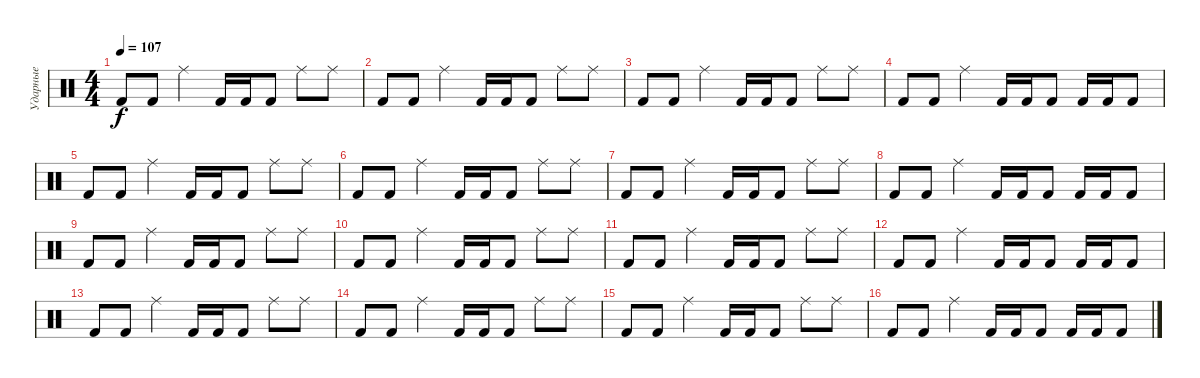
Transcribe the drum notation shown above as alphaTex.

\track ("Ударные" "Ударные") {instrument percussion}
\staff {score}
\articulation defaults
\ts (4 4)
\tempo 107
\clef neutral
\ks c "Kick (hit) 2".8{dy f} "Kick (hit) 2".8 "Ride (middle)".4 "Kick (hit) 2".16 "Kick (hit) 2".16 "Kick (hit) 2".8 "Ride (middle)".8 "Ride (middle)".8
|
"Kick (hit) 2".8 "Kick (hit) 2".8 "Ride (middle)".4 "Kick (hit) 2".16 "Kick (hit) 2".16 "Kick (hit) 2".8 "Ride (middle)".8 "Ride (middle)".8 |
"Kick (hit) 2".8 "Kick (hit) 2".8 "Ride (middle)".4 "Kick (hit) 2".16 "Kick (hit) 2".16 "Kick (hit) 2".8 "Ride (middle)".8 "Ride (middle)".8 |
"Kick (hit) 2".8 "Kick (hit) 2".8 "Ride (middle)".4 "Kick (hit) 2".16 "Kick (hit) 2".16 "Kick (hit) 2".8 "Kick (hit) 2".16 "Kick (hit) 2".16 "Kick (hit) 2".8 |
"Kick (hit) 2".8 "Kick (hit) 2".8 "Ride (middle)".4 "Kick (hit) 2".16 "Kick (hit) 2".16 "Kick (hit) 2".8 "Ride (middle)".8 "Ride (middle)".8 |
"Kick (hit) 2".8 "Kick (hit) 2".8 "Ride (middle)".4 "Kick (hit) 2".16 "Kick (hit) 2".16 "Kick (hit) 2".8 "Ride (middle)".8 "Ride (middle)".8 |
"Kick (hit) 2".8 "Kick (hit) 2".8 "Ride (middle)".4 "Kick (hit) 2".16 "Kick (hit) 2".16 "Kick (hit) 2".8 "Ride (middle)".8 "Ride (middle)".8 |
"Kick (hit) 2".8 "Kick (hit) 2".8 "Ride (middle)".4 "Kick (hit) 2".16 "Kick (hit) 2".16 "Kick (hit) 2".8 "Kick (hit) 2".16 "Kick (hit) 2".16 "Kick (hit) 2".8 |
"Kick (hit) 2".8 "Kick (hit) 2".8 "Ride (middle)".4 "Kick (hit) 2".16 "Kick (hit) 2".16 "Kick (hit) 2".8 "Ride (middle)".8 "Ride (middle)".8 |
"Kick (hit) 2".8 "Kick (hit) 2".8 "Ride (middle)".4 "Kick (hit) 2".16 "Kick (hit) 2".16 "Kick (hit) 2".8 "Ride (middle)".8 "Ride (middle)".8 |
"Kick (hit) 2".8 "Kick (hit) 2".8 "Ride (middle)".4 "Kick (hit) 2".16 "Kick (hit) 2".16 "Kick (hit) 2".8 "Ride (middle)".8 "Ride (middle)".8 |
"Kick (hit) 2".8 "Kick (hit) 2".8 "Ride (middle)".4 "Kick (hit) 2".16 "Kick (hit) 2".16 "Kick (hit) 2".8 "Kick (hit) 2".16 "Kick (hit) 2".16 "Kick (hit) 2".8 |
"Kick (hit) 2".8 "Kick (hit) 2".8 "Ride (middle)".4 "Kick (hit) 2".16 "Kick (hit) 2".16 "Kick (hit) 2".8 "Ride (middle)".8 "Ride (middle)".8 |
"Kick (hit) 2".8 "Kick (hit) 2".8 "Ride (middle)".4 "Kick (hit) 2".16 "Kick (hit) 2".16 "Kick (hit) 2".8 "Ride (middle)".8 "Ride (middle)".8 |
"Kick (hit) 2".8 "Kick (hit) 2".8 "Ride (middle)".4 "Kick (hit) 2".16 "Kick (hit) 2".16 "Kick (hit) 2".8 "Ride (middle)".8 "Ride (middle)".8 |
"Kick (hit) 2".8 "Kick (hit) 2".8 "Ride (middle)".4 "Kick (hit) 2".16 "Kick (hit) 2".16 "Kick (hit) 2".8 "Kick (hit) 2".16 "Kick (hit) 2".16 "Kick (hit) 2".8
